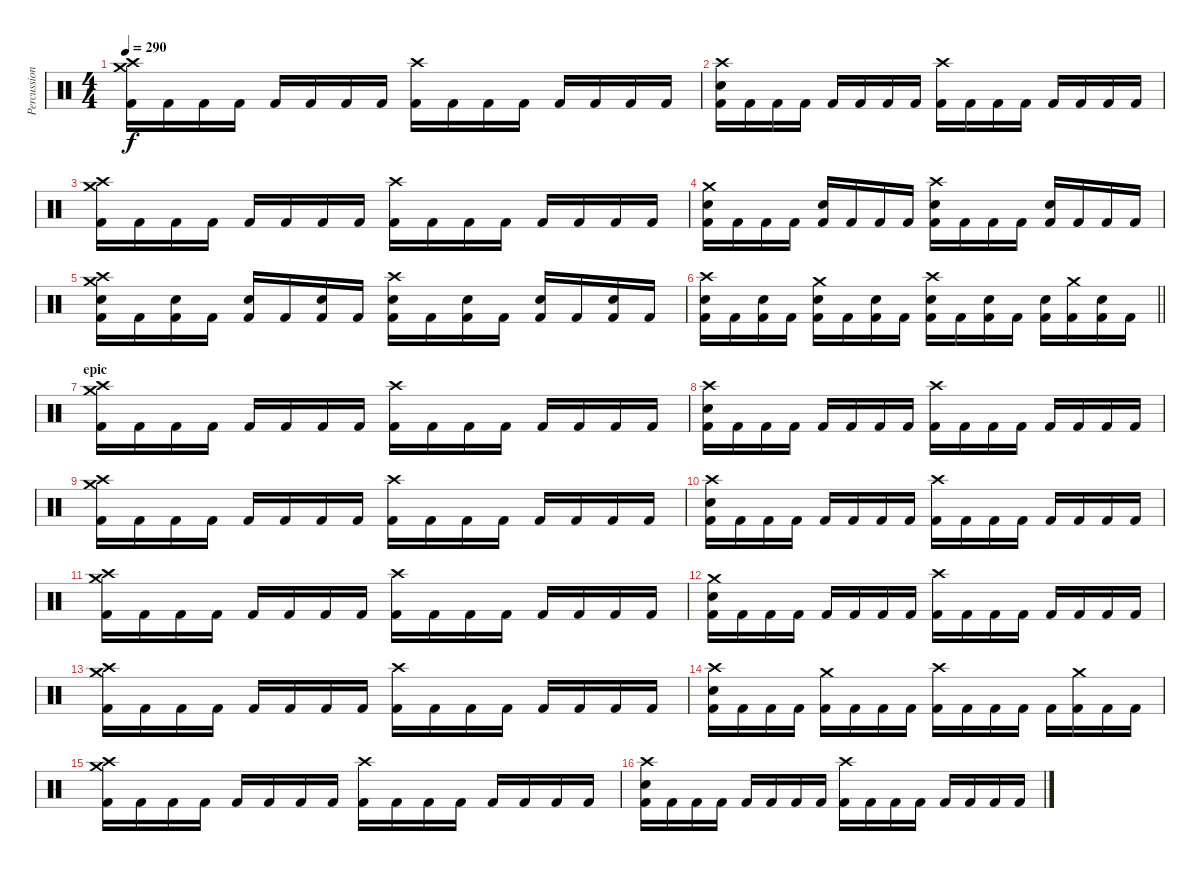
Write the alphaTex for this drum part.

\track ("Percussion" "Percussion") {instrument percussion}
\staff {score}
\articulation defaults
\ts (4 4)
\tempo 290
\clef neutral
\ks c
("Crash high (hit)" "Crash medium (hit)" "Kick (hit) 2").16{dy f} "Kick (hit) 2".16 "Kick (hit) 2".16 "Kick (hit) 2".16 "Kick (hit) 2".16 "Kick (hit) 2".16 "Kick (hit) 2".16 "Kick (hit) 2".16 ("Crash high (hit)" "Kick (hit) 2").16 "Kick (hit) 2".16 "Kick (hit) 2".16 "Kick (hit) 2".16 "Kick (hit) 2".16 "Kick (hit) 2".16 "Kick (hit) 2".16 "Kick (hit) 2".16 |
("Crash high (hit)" "Electric Snare (hit)" "Kick (hit) 2").16 "Kick (hit) 2".16 "Kick (hit) 2".16 "Kick (hit) 2".16 "Kick (hit) 2".16 "Kick (hit) 2".16 "Kick (hit) 2".16 "Kick (hit) 2".16 ("Crash high (hit)" "Kick (hit) 2").16 "Kick (hit) 2".16 "Kick (hit) 2".16 "Kick (hit) 2".16 "Kick (hit) 2".16 "Kick (hit) 2".16 "Kick (hit) 2".16 "Kick (hit) 2".16 |
("Crash high (hit)" "Crash medium (hit)" "Kick (hit) 2").16 "Kick (hit) 2".16 "Kick (hit) 2".16 "Kick (hit) 2".16 "Kick (hit) 2".16 "Kick (hit) 2".16 "Kick (hit) 2".16 "Kick (hit) 2".16 ("Crash high (hit)" "Kick (hit) 2").16 "Kick (hit) 2".16 "Kick (hit) 2".16 "Kick (hit) 2".16 "Kick (hit) 2".16 "Kick (hit) 2".16 "Kick (hit) 2".16 "Kick (hit) 2".16 |
("Crash medium (hit)" "Electric Snare (hit)" "Kick (hit) 2").16 "Kick (hit) 2".16 "Kick (hit) 2".16 "Kick (hit) 2".16 ("Electric Snare (hit)" "Kick (hit) 2").16 "Kick (hit) 2".16 "Kick (hit) 2".16 "Kick (hit) 2".16 ("Crash high (hit)" "Electric Snare (hit)" "Kick (hit) 2").16 "Kick (hit) 2".16 "Kick (hit) 2".16 "Kick (hit) 2".16 ("Electric Snare (hit)" "Kick (hit) 2").16 "Kick (hit) 2".16 "Kick (hit) 2".16 "Kick (hit) 2".16 |
("Crash high (hit)" "Crash medium (hit)" "Electric Snare (hit)" "Kick (hit) 2").16 "Kick (hit) 2".16 ("Electric Snare (hit)" "Kick (hit) 2").16 "Kick (hit) 2".16 ("Electric Snare (hit)" "Kick (hit) 2").16 "Kick (hit) 2".16 ("Electric Snare (hit)" "Kick (hit) 2").16 "Kick (hit) 2".16 ("Crash high (hit)" "Electric Snare (hit)" "Kick (hit) 2").16 "Kick (hit) 2".16 ("Electric Snare (hit)" "Kick (hit) 2").16 "Kick (hit) 2".16 ("Electric Snare (hit)" "Kick (hit) 2").16 "Kick (hit) 2".16 ("Electric Snare (hit)" "Kick (hit) 2").16 "Kick (hit) 2".16 |
\barLineRight lightlight
("Crash high (hit)" "Electric Snare (hit)" "Kick (hit) 2").16 "Kick (hit) 2".16 ("Electric Snare (hit)" "Kick (hit) 2").16 "Kick (hit) 2".16 ("Crash medium (hit)" "Electric Snare (hit)" "Kick (hit) 2").16 "Kick (hit) 2".16 ("Electric Snare (hit)" "Kick (hit) 2").16 "Kick (hit) 2".16 ("Crash high (hit)" "Electric Snare (hit)" "Kick (hit) 2").16 "Kick (hit) 2".16 ("Electric Snare (hit)" "Kick (hit) 2").16 "Kick (hit) 2".16 ("Electric Snare (hit)" "Kick (hit) 2").16 ("Crash medium (hit)" "Kick (hit) 2").16 ("Electric Snare (hit)" "Kick (hit) 2").16 "Kick (hit) 2".16 |
\section ("" "epic")
("Crash high (hit)" "Crash medium (hit)" "Kick (hit) 2").16 "Kick (hit) 2".16 "Kick (hit) 2".16 "Kick (hit) 2".16 "Kick (hit) 2".16 "Kick (hit) 2".16 "Kick (hit) 2".16 "Kick (hit) 2".16 ("Crash high (hit)" "Kick (hit) 2").16 "Kick (hit) 2".16 "Kick (hit) 2".16 "Kick (hit) 2".16 "Kick (hit) 2".16 "Kick (hit) 2".16 "Kick (hit) 2".16 "Kick (hit) 2".16 |
("Crash high (hit)" "Electric Snare (hit)" "Kick (hit) 2").16 "Kick (hit) 2".16 "Kick (hit) 2".16 "Kick (hit) 2".16 "Kick (hit) 2".16 "Kick (hit) 2".16 "Kick (hit) 2".16 "Kick (hit) 2".16 ("Crash high (hit)" "Kick (hit) 2").16 "Kick (hit) 2".16 "Kick (hit) 2".16 "Kick (hit) 2".16 "Kick (hit) 2".16 "Kick (hit) 2".16 "Kick (hit) 2".16 "Kick (hit) 2".16 |
("Crash high (hit)" "Crash medium (hit)" "Kick (hit) 2").16 "Kick (hit) 2".16 "Kick (hit) 2".16 "Kick (hit) 2".16 "Kick (hit) 2".16 "Kick (hit) 2".16 "Kick (hit) 2".16 "Kick (hit) 2".16 ("Crash high (hit)" "Kick (hit) 2").16 "Kick (hit) 2".16 "Kick (hit) 2".16 "Kick (hit) 2".16 "Kick (hit) 2".16 "Kick (hit) 2".16 "Kick (hit) 2".16 "Kick (hit) 2".16 |
("Crash high (hit)" "Electric Snare (hit)" "Kick (hit) 2").16 "Kick (hit) 2".16 "Kick (hit) 2".16 "Kick (hit) 2".16 "Kick (hit) 2".16 "Kick (hit) 2".16 "Kick (hit) 2".16 "Kick (hit) 2".16 ("Crash high (hit)" "Kick (hit) 2").16 "Kick (hit) 2".16 "Kick (hit) 2".16 "Kick (hit) 2".16 "Kick (hit) 2".16 "Kick (hit) 2".16 "Kick (hit) 2".16 "Kick (hit) 2".16 |
("Crash high (hit)" "Crash medium (hit)" "Kick (hit) 2").16 "Kick (hit) 2".16 "Kick (hit) 2".16 "Kick (hit) 2".16 "Kick (hit) 2".16 "Kick (hit) 2".16 "Kick (hit) 2".16 "Kick (hit) 2".16 ("Crash high (hit)" "Kick (hit) 2").16 "Kick (hit) 2".16 "Kick (hit) 2".16 "Kick (hit) 2".16 "Kick (hit) 2".16 "Kick (hit) 2".16 "Kick (hit) 2".16 "Kick (hit) 2".16 |
("Crash medium (hit)" "Electric Snare (hit)" "Kick (hit) 2").16 "Kick (hit) 2".16 "Kick (hit) 2".16 "Kick (hit) 2".16 "Kick (hit) 2".16 "Kick (hit) 2".16 "Kick (hit) 2".16 "Kick (hit) 2".16 ("Crash high (hit)" "Kick (hit) 2").16 "Kick (hit) 2".16 "Kick (hit) 2".16 "Kick (hit) 2".16 "Kick (hit) 2".16 "Kick (hit) 2".16 "Kick (hit) 2".16 "Kick (hit) 2".16 |
("Crash high (hit)" "Crash medium (hit)" "Kick (hit) 2").16 "Kick (hit) 2".16 "Kick (hit) 2".16 "Kick (hit) 2".16 "Kick (hit) 2".16 "Kick (hit) 2".16 "Kick (hit) 2".16 "Kick (hit) 2".16 ("Crash high (hit)" "Kick (hit) 2").16 "Kick (hit) 2".16 "Kick (hit) 2".16 "Kick (hit) 2".16 "Kick (hit) 2".16 "Kick (hit) 2".16 "Kick (hit) 2".16 "Kick (hit) 2".16 |
("Crash high (hit)" "Electric Snare (hit)" "Kick (hit) 2").16 "Kick (hit) 2".16 "Kick (hit) 2".16 "Kick (hit) 2".16 ("Crash medium (hit)" "Kick (hit) 2").16 "Kick (hit) 2".16 "Kick (hit) 2".16 "Kick (hit) 2".16 ("Crash high (hit)" "Kick (hit) 2").16 "Kick (hit) 2".16 "Kick (hit) 2".16 "Kick (hit) 2".16 "Kick (hit) 2".16 ("Crash medium (hit)" "Kick (hit) 2").16 "Kick (hit) 2".16 "Kick (hit) 2".16 |
("Crash high (hit)" "Crash medium (hit)" "Kick (hit) 2").16 "Kick (hit) 2".16 "Kick (hit) 2".16 "Kick (hit) 2".16 "Kick (hit) 2".16 "Kick (hit) 2".16 "Kick (hit) 2".16 "Kick (hit) 2".16 ("Crash high (hit)" "Kick (hit) 2").16 "Kick (hit) 2".16 "Kick (hit) 2".16 "Kick (hit) 2".16 "Kick (hit) 2".16 "Kick (hit) 2".16 "Kick (hit) 2".16 "Kick (hit) 2".16 |
("Crash high (hit)" "Electric Snare (hit)" "Kick (hit) 2").16 "Kick (hit) 2".16 "Kick (hit) 2".16 "Kick (hit) 2".16 "Kick (hit) 2".16 "Kick (hit) 2".16 "Kick (hit) 2".16 "Kick (hit) 2".16 ("Crash high (hit)" "Kick (hit) 2").16 "Kick (hit) 2".16 "Kick (hit) 2".16 "Kick (hit) 2".16 "Kick (hit) 2".16 "Kick (hit) 2".16 "Kick (hit) 2".16 "Kick (hit) 2".16
